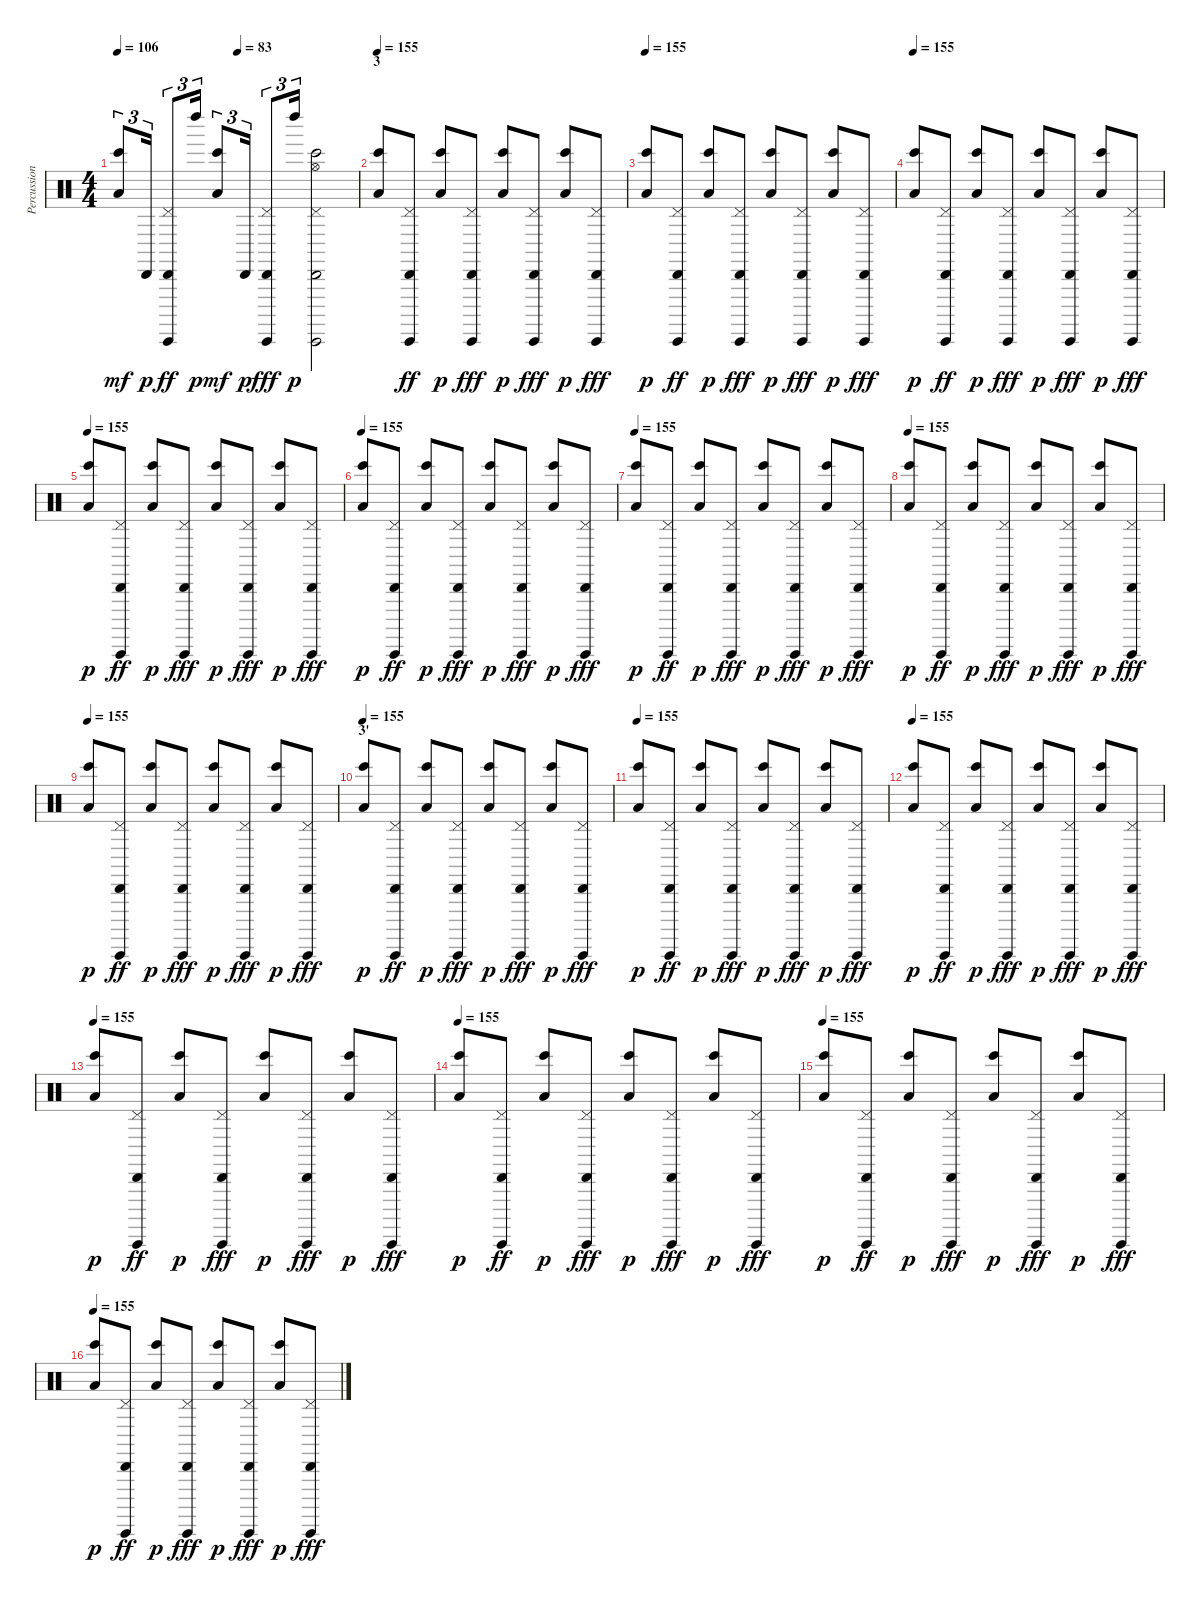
\track ("Percussions" "Percussion") {instrument percussion}
\staff {score}
\articulation defaults
\ts (4 4)
\tempo 106
\tempo (83 0.5)
\clef neutral
\ks c
("Bongo High (hit)" "Low Floor Tom (hit)").8{tu (3 2) dy mf} "Cabasa (hit)".16{tu (3 2) dy p} ("Pedal Hi-Hat (hit)" "Cabasa (hit)" "Guiro (hit)").8{tu (3 2) dy ff} "Left Maraca (hit)".16{tu (3 2) dy p} ("Bongo High (hit)" "Low Floor Tom (hit)").8{tu (3 2) dy mf} "Cabasa (hit)".16{tu (3 2) dy p} ("Pedal Hi-Hat (hit)" "Cabasa (hit)" "Guiro (hit)").8{tu (3 2) dy fff} "Left Maraca (hit)".16{tu (3 2) dy p} ("Pedal Hi-Hat (hit)" "Cabasa (hit)" "Guiro (hit)" "Hi-Hat (open)" "Bongo High (hit)").2 |
\section ("" "3")
\tempo 155
("Bongo High (hit)" "Low Floor Tom (hit)").8 ("Pedal Hi-Hat (hit)" "Cabasa (hit)" "Guiro (hit)").8{dy ff} ("Bongo High (hit)" "Low Floor Tom (hit)").8{dy p} ("Pedal Hi-Hat (hit)" "Cabasa (hit)" "Guiro (hit)").8{dy fff} ("Bongo High (hit)" "Low Floor Tom (hit)").8{dy p} ("Pedal Hi-Hat (hit)" "Cabasa (hit)" "Guiro (hit)").8{dy fff} ("Bongo High (hit)" "Low Floor Tom (hit)").8{dy p} ("Pedal Hi-Hat (hit)" "Cabasa (hit)" "Guiro (hit)").8{dy fff} |
\tempo 155
("Bongo High (hit)" "Low Floor Tom (hit)").8{dy p} ("Pedal Hi-Hat (hit)" "Cabasa (hit)" "Guiro (hit)").8{dy ff} ("Bongo High (hit)" "Low Floor Tom (hit)").8{dy p} ("Pedal Hi-Hat (hit)" "Cabasa (hit)" "Guiro (hit)").8{dy fff} ("Bongo High (hit)" "Low Floor Tom (hit)").8{dy p} ("Pedal Hi-Hat (hit)" "Cabasa (hit)" "Guiro (hit)").8{dy fff} ("Bongo High (hit)" "Low Floor Tom (hit)").8{dy p} ("Pedal Hi-Hat (hit)" "Cabasa (hit)" "Guiro (hit)").8{dy fff} |
\tempo 155
("Bongo High (hit)" "Low Floor Tom (hit)").8{dy p} ("Pedal Hi-Hat (hit)" "Cabasa (hit)" "Guiro (hit)").8{dy ff} ("Bongo High (hit)" "Low Floor Tom (hit)").8{dy p} ("Pedal Hi-Hat (hit)" "Cabasa (hit)" "Guiro (hit)").8{dy fff} ("Bongo High (hit)" "Low Floor Tom (hit)").8{dy p} ("Pedal Hi-Hat (hit)" "Cabasa (hit)" "Guiro (hit)").8{dy fff} ("Bongo High (hit)" "Low Floor Tom (hit)").8{dy p} ("Pedal Hi-Hat (hit)" "Cabasa (hit)" "Guiro (hit)").8{dy fff} |
\tempo 155
("Bongo High (hit)" "Low Floor Tom (hit)").8{dy p} ("Pedal Hi-Hat (hit)" "Cabasa (hit)" "Guiro (hit)").8{dy ff} ("Bongo High (hit)" "Low Floor Tom (hit)").8{dy p} ("Pedal Hi-Hat (hit)" "Cabasa (hit)" "Guiro (hit)").8{dy fff} ("Bongo High (hit)" "Low Floor Tom (hit)").8{dy p} ("Pedal Hi-Hat (hit)" "Cabasa (hit)" "Guiro (hit)").8{dy fff} ("Bongo High (hit)" "Low Floor Tom (hit)").8{dy p} ("Pedal Hi-Hat (hit)" "Cabasa (hit)" "Guiro (hit)").8{dy fff} |
\tempo 155
("Bongo High (hit)" "Low Floor Tom (hit)").8{dy p} ("Pedal Hi-Hat (hit)" "Cabasa (hit)" "Guiro (hit)").8{dy ff} ("Bongo High (hit)" "Low Floor Tom (hit)").8{dy p} ("Pedal Hi-Hat (hit)" "Cabasa (hit)" "Guiro (hit)").8{dy fff} ("Bongo High (hit)" "Low Floor Tom (hit)").8{dy p} ("Pedal Hi-Hat (hit)" "Cabasa (hit)" "Guiro (hit)").8{dy fff} ("Bongo High (hit)" "Low Floor Tom (hit)").8{dy p} ("Pedal Hi-Hat (hit)" "Cabasa (hit)" "Guiro (hit)").8{dy fff} |
\tempo 155
("Bongo High (hit)" "Low Floor Tom (hit)").8{dy p} ("Pedal Hi-Hat (hit)" "Cabasa (hit)" "Guiro (hit)").8{dy ff} ("Bongo High (hit)" "Low Floor Tom (hit)").8{dy p} ("Pedal Hi-Hat (hit)" "Cabasa (hit)" "Guiro (hit)").8{dy fff} ("Bongo High (hit)" "Low Floor Tom (hit)").8{dy p} ("Pedal Hi-Hat (hit)" "Cabasa (hit)" "Guiro (hit)").8{dy fff} ("Bongo High (hit)" "Low Floor Tom (hit)").8{dy p} ("Pedal Hi-Hat (hit)" "Cabasa (hit)" "Guiro (hit)").8{dy fff} |
\tempo 155
("Bongo High (hit)" "Low Floor Tom (hit)").8{dy p} ("Pedal Hi-Hat (hit)" "Cabasa (hit)" "Guiro (hit)").8{dy ff} ("Bongo High (hit)" "Low Floor Tom (hit)").8{dy p} ("Pedal Hi-Hat (hit)" "Cabasa (hit)" "Guiro (hit)").8{dy fff} ("Bongo High (hit)" "Low Floor Tom (hit)").8{dy p} ("Pedal Hi-Hat (hit)" "Cabasa (hit)" "Guiro (hit)").8{dy fff} ("Bongo High (hit)" "Low Floor Tom (hit)").8{dy p} ("Pedal Hi-Hat (hit)" "Cabasa (hit)" "Guiro (hit)").8{dy fff} |
\tempo 155
("Bongo High (hit)" "Low Floor Tom (hit)").8{dy p} ("Pedal Hi-Hat (hit)" "Cabasa (hit)" "Guiro (hit)").8{dy ff} ("Bongo High (hit)" "Low Floor Tom (hit)").8{dy p} ("Pedal Hi-Hat (hit)" "Cabasa (hit)" "Guiro (hit)").8{dy fff} ("Bongo High (hit)" "Low Floor Tom (hit)").8{dy p} ("Pedal Hi-Hat (hit)" "Cabasa (hit)" "Guiro (hit)").8{dy fff} ("Bongo High (hit)" "Low Floor Tom (hit)").8{dy p} ("Pedal Hi-Hat (hit)" "Cabasa (hit)" "Guiro (hit)").8{dy fff} |
\section ("" "3'")
\tempo 155
("Bongo High (hit)" "Low Floor Tom (hit)").8{dy p} ("Pedal Hi-Hat (hit)" "Cabasa (hit)" "Guiro (hit)").8{dy ff} ("Bongo High (hit)" "Low Floor Tom (hit)").8{dy p} ("Pedal Hi-Hat (hit)" "Cabasa (hit)" "Guiro (hit)").8{dy fff} ("Bongo High (hit)" "Low Floor Tom (hit)").8{dy p} ("Pedal Hi-Hat (hit)" "Cabasa (hit)" "Guiro (hit)").8{dy fff} ("Bongo High (hit)" "Low Floor Tom (hit)").8{dy p} ("Pedal Hi-Hat (hit)" "Cabasa (hit)" "Guiro (hit)").8{dy fff} |
\tempo 155
("Bongo High (hit)" "Low Floor Tom (hit)").8{dy p} ("Pedal Hi-Hat (hit)" "Cabasa (hit)" "Guiro (hit)").8{dy ff} ("Bongo High (hit)" "Low Floor Tom (hit)").8{dy p} ("Pedal Hi-Hat (hit)" "Cabasa (hit)" "Guiro (hit)").8{dy fff} ("Bongo High (hit)" "Low Floor Tom (hit)").8{dy p} ("Pedal Hi-Hat (hit)" "Cabasa (hit)" "Guiro (hit)").8{dy fff} ("Bongo High (hit)" "Low Floor Tom (hit)").8{dy p} ("Pedal Hi-Hat (hit)" "Cabasa (hit)" "Guiro (hit)").8{dy fff} |
\tempo 155
("Bongo High (hit)" "Low Floor Tom (hit)").8{dy p} ("Pedal Hi-Hat (hit)" "Cabasa (hit)" "Guiro (hit)").8{dy ff} ("Bongo High (hit)" "Low Floor Tom (hit)").8{dy p} ("Pedal Hi-Hat (hit)" "Cabasa (hit)" "Guiro (hit)").8{dy fff} ("Bongo High (hit)" "Low Floor Tom (hit)").8{dy p} ("Pedal Hi-Hat (hit)" "Cabasa (hit)" "Guiro (hit)").8{dy fff} ("Bongo High (hit)" "Low Floor Tom (hit)").8{dy p} ("Pedal Hi-Hat (hit)" "Cabasa (hit)" "Guiro (hit)").8{dy fff} |
\tempo 155
("Bongo High (hit)" "Low Floor Tom (hit)").8{dy p} ("Pedal Hi-Hat (hit)" "Cabasa (hit)" "Guiro (hit)").8{dy ff} ("Bongo High (hit)" "Low Floor Tom (hit)").8{dy p} ("Pedal Hi-Hat (hit)" "Cabasa (hit)" "Guiro (hit)").8{dy fff} ("Bongo High (hit)" "Low Floor Tom (hit)").8{dy p} ("Pedal Hi-Hat (hit)" "Cabasa (hit)" "Guiro (hit)").8{dy fff} ("Bongo High (hit)" "Low Floor Tom (hit)").8{dy p} ("Pedal Hi-Hat (hit)" "Cabasa (hit)" "Guiro (hit)").8{dy fff} |
\tempo 155
("Bongo High (hit)" "Low Floor Tom (hit)").8{dy p} ("Pedal Hi-Hat (hit)" "Cabasa (hit)" "Guiro (hit)").8{dy ff} ("Bongo High (hit)" "Low Floor Tom (hit)").8{dy p} ("Pedal Hi-Hat (hit)" "Cabasa (hit)" "Guiro (hit)").8{dy fff} ("Bongo High (hit)" "Low Floor Tom (hit)").8{dy p} ("Pedal Hi-Hat (hit)" "Cabasa (hit)" "Guiro (hit)").8{dy fff} ("Bongo High (hit)" "Low Floor Tom (hit)").8{dy p} ("Pedal Hi-Hat (hit)" "Cabasa (hit)" "Guiro (hit)").8{dy fff} |
\tempo 155
("Bongo High (hit)" "Low Floor Tom (hit)").8{dy p} ("Pedal Hi-Hat (hit)" "Cabasa (hit)" "Guiro (hit)").8{dy ff} ("Bongo High (hit)" "Low Floor Tom (hit)").8{dy p} ("Pedal Hi-Hat (hit)" "Cabasa (hit)" "Guiro (hit)").8{dy fff} ("Bongo High (hit)" "Low Floor Tom (hit)").8{dy p} ("Pedal Hi-Hat (hit)" "Cabasa (hit)" "Guiro (hit)").8{dy fff} ("Bongo High (hit)" "Low Floor Tom (hit)").8{dy p} ("Pedal Hi-Hat (hit)" "Cabasa (hit)" "Guiro (hit)").8{dy fff} |
\tempo 155
("Bongo High (hit)" "Low Floor Tom (hit)").8{dy p} ("Pedal Hi-Hat (hit)" "Cabasa (hit)" "Guiro (hit)").8{dy ff} ("Bongo High (hit)" "Low Floor Tom (hit)").8{dy p} ("Pedal Hi-Hat (hit)" "Cabasa (hit)" "Guiro (hit)").8{dy fff} ("Bongo High (hit)" "Low Floor Tom (hit)").8{dy p} ("Pedal Hi-Hat (hit)" "Cabasa (hit)" "Guiro (hit)").8{dy fff} ("Bongo High (hit)" "Low Floor Tom (hit)").8{dy p} ("Pedal Hi-Hat (hit)" "Cabasa (hit)" "Guiro (hit)").8{dy fff}
